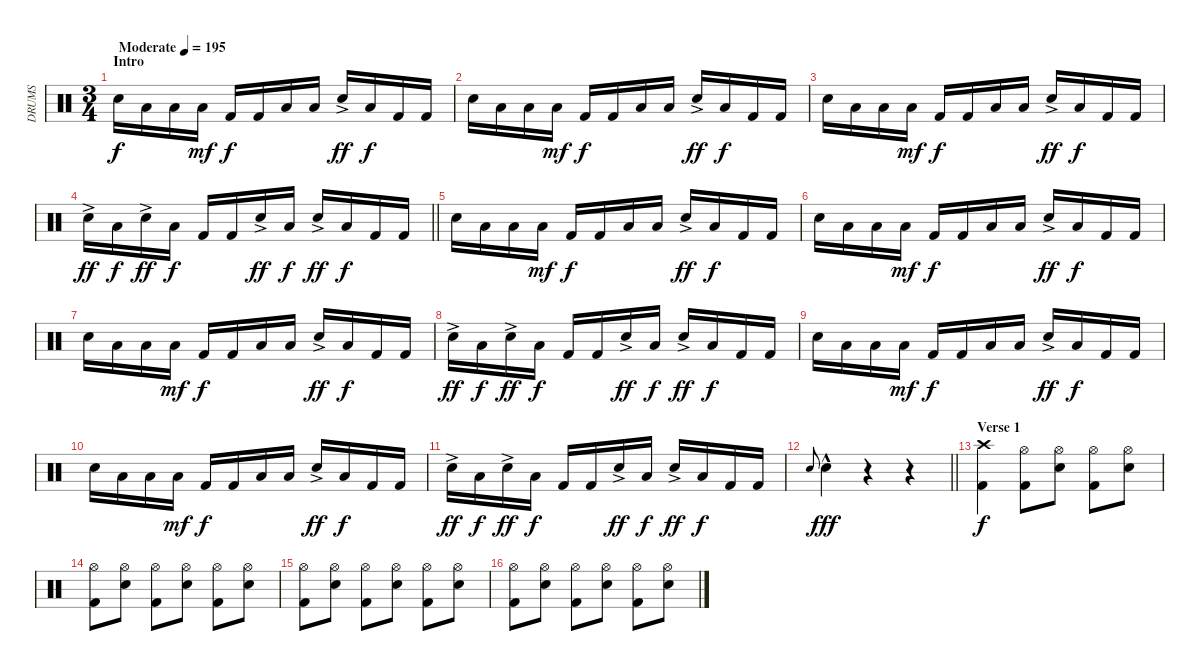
\track ("DRUMS" "DRUMS") {instrument percussion}
\staff {score}
\articulation defaults
\ts (3 4)
\section ("" "Intro")
\tempo (195 "Moderate")
\tempo 196
\tempo (195 "Moderate")
\clef neutral
\ks c "Snare (hit) 2".16{dy f} "Low Tom (hit)".16 "Low Floor Tom (hit)".16 "Low Tom (hit)".16{dy mf} "Kick (hit) 2".16{dy f} "Kick (hit) 2".16 "Low Floor Tom (hit)".16 "Low Tom (hit)".16 "Snare (hit) 2"{ac}.16{dy ff} "Low Tom (hit)".16{dy f} "Kick (hit) 2".16 "Kick (hit) 2".16
|
"Snare (hit) 2".16 "Low Tom (hit)".16 "Low Floor Tom (hit)".16 "Low Tom (hit)".16{dy mf} "Kick (hit) 2".16{dy f} "Kick (hit) 2".16 "Low Floor Tom (hit)".16 "Low Tom (hit)".16 "Snare (hit) 2"{ac}.16{dy ff} "Low Tom (hit)".16{dy f} "Kick (hit) 2".16 "Kick (hit) 2".16 |
"Snare (hit) 2".16 "Low Tom (hit)".16 "Low Floor Tom (hit)".16 "Low Tom (hit)".16{dy mf} "Kick (hit) 2".16{dy f} "Kick (hit) 2".16 "Low Floor Tom (hit)".16 "Low Tom (hit)".16 "Snare (hit) 2"{ac}.16{dy ff} "Low Tom (hit)".16{dy f} "Kick (hit) 2".16 "Kick (hit) 2".16 |
\barLineRight lightlight "Snare (hit) 2"{ac}.16{dy ff} "Low Tom (hit)".16{dy f} "Snare (hit) 2"{ac}.16{dy ff} "Low Tom (hit)".16{dy f} "Kick (hit) 2".16 "Kick (hit) 2".16 "Snare (hit) 2"{ac}.16{dy ff} "Low Tom (hit)".16{dy f} "Snare (hit) 2"{ac}.16{dy ff} "Low Tom (hit)".16{dy f} "Kick (hit) 2".16 "Kick (hit) 2".16
|
"Snare (hit) 2".16 "Low Tom (hit)".16 "Low Floor Tom (hit)".16 "Low Tom (hit)".16{dy mf} "Kick (hit) 2".16{dy f} "Kick (hit) 2".16 "Low Floor Tom (hit)".16 "Low Tom (hit)".16 "Snare (hit) 2"{ac}.16{dy ff} "Low Tom (hit)".16{dy f} "Kick (hit) 2".16 "Kick (hit) 2".16 |
"Snare (hit) 2".16 "Low Tom (hit)".16 "Low Floor Tom (hit)".16 "Low Tom (hit)".16{dy mf} "Kick (hit) 2".16{dy f} "Kick (hit) 2".16 "Low Floor Tom (hit)".16 "Low Tom (hit)".16 "Snare (hit) 2"{ac}.16{dy ff} "Low Tom (hit)".16{dy f} "Kick (hit) 2".16 "Kick (hit) 2".16 |
"Snare (hit) 2".16 "Low Tom (hit)".16 "Low Floor Tom (hit)".16 "Low Tom (hit)".16{dy mf} "Kick (hit) 2".16{dy f} "Kick (hit) 2".16 "Low Floor Tom (hit)".16 "Low Tom (hit)".16 "Snare (hit) 2"{ac}.16{dy ff} "Low Tom (hit)".16{dy f} "Kick (hit) 2".16 "Kick (hit) 2".16 |
"Snare (hit) 2"{ac}.16{dy ff} "Low Tom (hit)".16{dy f} "Snare (hit) 2"{ac}.16{dy ff} "Low Tom (hit)".16{dy f} "Kick (hit) 2".16 "Kick (hit) 2".16 "Snare (hit) 2"{ac}.16{dy ff} "Low Tom (hit)".16{dy f} "Snare (hit) 2"{ac}.16{dy ff} "Low Tom (hit)".16{dy f} "Kick (hit) 2".16 "Kick (hit) 2".16 |
"Snare (hit) 2".16 "Low Tom (hit)".16 "Low Floor Tom (hit)".16 "Low Tom (hit)".16{dy mf} "Kick (hit) 2".16{dy f} "Kick (hit) 2".16 "Low Floor Tom (hit)".16 "Low Tom (hit)".16 "Snare (hit) 2"{ac}.16{dy ff} "Low Tom (hit)".16{dy f} "Kick (hit) 2".16 "Kick (hit) 2".16 |
"Snare (hit) 2".16 "Low Tom (hit)".16 "Low Floor Tom (hit)".16 "Low Tom (hit)".16{dy mf} "Kick (hit) 2".16{dy f} "Kick (hit) 2".16 "Low Floor Tom (hit)".16 "Low Tom (hit)".16 "Snare (hit) 2"{ac}.16{dy ff} "Low Tom (hit)".16{dy f} "Kick (hit) 2".16 "Kick (hit) 2".16 |
"Snare (hit) 2"{ac}.16{dy ff} "Low Tom (hit)".16{dy f} "Snare (hit) 2"{ac}.16{dy ff} "Low Tom (hit)".16{dy f} "Kick (hit) 2".16 "Kick (hit) 2".16 "Snare (hit) 2"{ac}.16{dy ff} "Low Tom (hit)".16{dy f} "Snare (hit) 2"{ac}.16{dy ff} "Low Tom (hit)".16{dy f} "Kick (hit) 2".16 "Kick (hit) 2".16 |
\barLineRight lightlight "Snare (hit) 2".8{gr onbeat} "Snare (hit) 2"{hac}.4{dy fff}
r.4 r.4 |
\section ("" "Verse 1")
("Crash high (hit)" "Kick (hit) 2").4{dy f} ("Hi-Hat (open)" "Kick (hit) 2").8 ("Hi-Hat (open)" "Snare (hit) 2").8 ("Hi-Hat (open)" "Kick (hit) 2").8 ("Hi-Hat (open)" "Snare (hit) 2").8 |
("Hi-Hat (open)" "Kick (hit) 2").8 ("Hi-Hat (open)" "Snare (hit) 2").8 ("Hi-Hat (open)" "Kick (hit) 2").8 ("Hi-Hat (open)" "Snare (hit) 2").8 ("Hi-Hat (open)" "Kick (hit) 2").8 ("Hi-Hat (open)" "Snare (hit) 2").8 |
("Hi-Hat (open)" "Kick (hit) 2").8 ("Hi-Hat (open)" "Snare (hit) 2").8 ("Hi-Hat (open)" "Kick (hit) 2").8 ("Hi-Hat (open)" "Snare (hit) 2").8 ("Hi-Hat (open)" "Kick (hit) 2").8 ("Hi-Hat (open)" "Snare (hit) 2").8 |
("Hi-Hat (open)" "Kick (hit) 2").8 ("Hi-Hat (open)" "Snare (hit) 2").8 ("Hi-Hat (open)" "Kick (hit) 2").8 ("Hi-Hat (open)" "Snare (hit) 2").8 ("Hi-Hat (open)" "Kick (hit) 2").8 ("Hi-Hat (open)" "Snare (hit) 2").8
